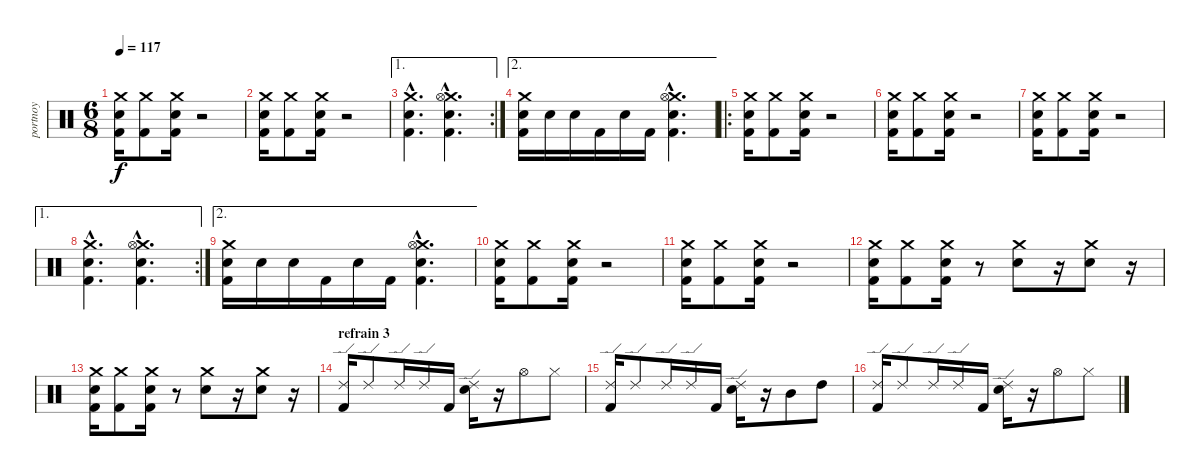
\track ("portnoy" "portnoy") {instrument percussion}
\staff {score}
\articulation defaults
\ts (6 8)
\tempo 117
\clef neutral
\ks c
("Crash medium (hit)" "Kick (hit) 2" "Electric Snare (hit)").16{dy f} ("Crash medium (hit)" "Kick (hit) 2").8 ("Crash medium (hit)" "Kick (hit) 2" "Electric Snare (hit)").16 r.2 |
("Crash medium (hit)" "Kick (hit) 2" "Electric Snare (hit)").16 ("Crash medium (hit)" "Kick (hit) 2").8 ("Crash medium (hit)" "Kick (hit) 2" "Electric Snare (hit)").16 r.2 |
\ae 1
\rc 2
("Crash medium (hit)"{hac} "Kick (hit) 2"{hac} "Electric Snare (hit)"{hac}).4{d} ("Crash medium (hit)"{hac} "Hi-Hat (open)"{hac} "Electric Snare (hit)"{hac} "Kick (hit) 2"{hac}).4{d} |
\ae 2
("Crash medium (hit)" "Kick (hit) 2" "Electric Snare (hit)").16 "Electric Snare (hit)".16 "Electric Snare (hit)".16 "Kick (hit) 2".16 "Electric Snare (hit)".16 "Kick (hit) 2".16 ("Crash medium (hit)"{hac} "Hi-Hat (open)"{hac} "Electric Snare (hit)"{hac} "Kick (hit) 2"{hac}).4{d} |
\ro
("Crash medium (hit)" "Kick (hit) 2" "Electric Snare (hit)").16 ("Crash medium (hit)" "Kick (hit) 2").8 ("Crash medium (hit)" "Kick (hit) 2" "Electric Snare (hit)").16 r.2 |
("Crash medium (hit)" "Kick (hit) 2" "Electric Snare (hit)").16 ("Crash medium (hit)" "Kick (hit) 2").8 ("Crash medium (hit)" "Kick (hit) 2" "Electric Snare (hit)").16 r.2 |
("Crash medium (hit)" "Kick (hit) 2" "Electric Snare (hit)").16 ("Crash medium (hit)" "Kick (hit) 2").8 ("Crash medium (hit)" "Kick (hit) 2" "Electric Snare (hit)").16 r.2 |
\ae 1
\rc 2
("Crash medium (hit)"{hac} "Kick (hit) 2"{hac} "Electric Snare (hit)"{hac}).4{d} ("Crash medium (hit)"{hac} "Hi-Hat (open)"{hac} "Electric Snare (hit)"{hac} "Kick (hit) 2"{hac}).4{d} |
\ae 2
("Crash medium (hit)" "Kick (hit) 2" "Electric Snare (hit)").16 "Electric Snare (hit)".16 "Electric Snare (hit)".16 "Kick (hit) 2".16 "Electric Snare (hit)".16 "Kick (hit) 2".16 ("Crash medium (hit)"{hac} "Hi-Hat (open)"{hac} "Electric Snare (hit)"{hac} "Kick (hit) 2"{hac}).4{d} |
("Crash medium (hit)" "Kick (hit) 2" "Electric Snare (hit)").16 ("Crash medium (hit)" "Kick (hit) 2").8 ("Crash medium (hit)" "Kick (hit) 2" "Electric Snare (hit)").16 r.2 |
("Crash medium (hit)" "Kick (hit) 2" "Electric Snare (hit)").16 ("Crash medium (hit)" "Kick (hit) 2").8 ("Crash medium (hit)" "Kick (hit) 2" "Electric Snare (hit)").16 r.2 |
("Crash medium (hit)" "Kick (hit) 2" "Electric Snare (hit)").16 ("Crash medium (hit)" "Kick (hit) 2").8 ("Crash medium (hit)" "Kick (hit) 2" "Electric Snare (hit)").16 r.8 ("Crash medium (hit)" "Electric Snare (hit)").8 r.16 ("Crash medium (hit)" "Electric Snare (hit)").8 r.16 |
("Crash medium (hit)" "Kick (hit) 2" "Electric Snare (hit)").16 ("Crash medium (hit)" "Kick (hit) 2").8 ("Crash medium (hit)" "Kick (hit) 2" "Electric Snare (hit)").16 r.8 ("Crash medium (hit)" "Electric Snare (hit)").8 r.16 ("Crash medium (hit)" "Electric Snare (hit)").8 r.16 |
\section ("" "refrain 3")
("Ride (edge) 2" "Kick (hit) 2").16 "Ride (edge) 2".8 "Ride (edge) 2".16 "Ride (edge) 2".16 "Kick (hit) 2".16 ("Ride (edge) 2" "Electric Snare (hit)").16 r.16 "Hi-Hat (open)".8 "Hi-Hat (closed)".8 |
("Ride (edge) 2" "Kick (hit) 2").16 "Ride (edge) 2".8 "Ride (edge) 2".16 "Ride (edge) 2".16 "Kick (hit) 2".16 ("Ride (edge) 2" "Electric Snare (hit)").16 r.16 "Mid Tom (hit)".8 "High Tom (hit)".8 |
("Ride (edge) 2" "Kick (hit) 2").16 "Ride (edge) 2".8 "Ride (edge) 2".16 "Ride (edge) 2".16 "Kick (hit) 2".16 ("Ride (edge) 2" "Electric Snare (hit)").16 r.16 "Hi-Hat (open)".8 "Hi-Hat (closed)".8
